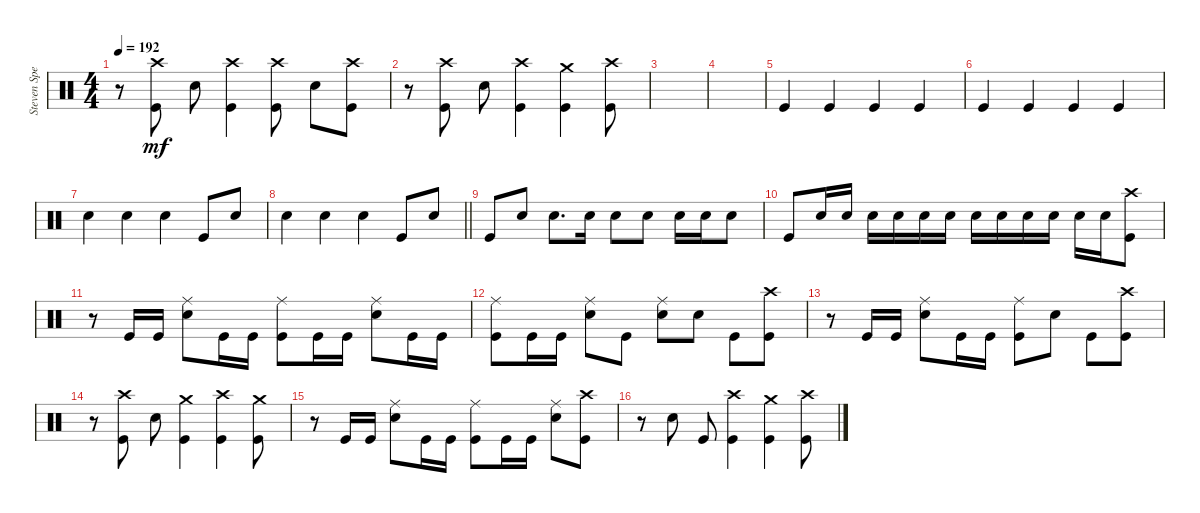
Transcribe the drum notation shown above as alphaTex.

\track ("Steven Spence" "Steven Spe") {instrument percussion}
\staff {score}
\articulation defaults
\ts (4 4)
\tempo 192
\clef neutral
\ks c
r.8{dy mf} ("Crash high (hit)" "Kick (hit)").8 "Electric Snare (hit)".8 ("Crash high (hit)" "Kick (hit)").4 ("Crash high (hit)" "Kick (hit)").8 "Electric Snare (hit)".8 ("Crash high (hit)" "Kick (hit)").8 |
r.8 ("Crash high (hit)" "Kick (hit)").8 "Electric Snare (hit)".8 ("Crash high (hit)" "Kick (hit)").4 ("Crash medium (hit)" "Kick (hit)").4 ("Crash high (hit)" "Kick (hit)").8 |
|
|
"Kick (hit)".4 "Kick (hit)".4 "Kick (hit)".4 "Kick (hit)".4 |
"Kick (hit)".4 "Kick (hit)".4 "Kick (hit)".4 "Kick (hit)".4 |
"Electric Snare (hit)".4 "Electric Snare (hit)".4 "Electric Snare (hit)".4 "Kick (hit)".8 "Electric Snare (hit)".8 |
\barLineRight lightlight "Electric Snare (hit)".4 "Electric Snare (hit)".4 "Electric Snare (hit)".4 "Kick (hit)".8 "Electric Snare (hit)".8
|
\section ("" "")
"Kick (hit)".8 "Electric Snare (hit)".8 "Electric Snare (hit)".8{d} "Electric Snare (hit)".16 "Electric Snare (hit)".8 "Electric Snare (hit)".8 "Electric Snare (hit)".16 "Electric Snare (hit)".16 "Electric Snare (hit)".8 |
"Kick (hit)".8 "Electric Snare (hit)".16 "Electric Snare (hit)".16 "Electric Snare (hit)".16 "Electric Snare (hit)".16 "Electric Snare (hit)".16 "Electric Snare (hit)".16 "Electric Snare (hit)".16 "Electric Snare (hit)".16 "Electric Snare (hit)".16 "Electric Snare (hit)".16 "Electric Snare (hit)".16 "Electric Snare (hit)".16 ("Crash high (hit)" "Kick (hit)").8 |
r.8 "Kick (hit)".16 "Kick (hit)".16 ("Ride (middle)" "Electric Snare (hit)").8 "Kick (hit)".16 "Kick (hit)".16 ("Ride (middle)" "Kick (hit)").8 "Kick (hit)".16 "Kick (hit)".16 ("Ride (middle)" "Electric Snare (hit)").8 "Kick (hit)".16 "Kick (hit)".16 |
("Ride (middle)" "Kick (hit)").8 "Kick (hit)".16 "Kick (hit)".16 ("Ride (middle)" "Electric Snare (hit)").8 "Kick (hit)".8 ("Ride (middle)" "Electric Snare (hit)").8 "Electric Snare (hit)".8 "Kick (hit)".8 ("Crash high (hit)" "Kick (hit)").8 |
r.8 "Kick (hit)".16 "Kick (hit)".16 ("Ride (middle)" "Electric Snare (hit)").8 "Kick (hit)".16 "Kick (hit)".16 ("Ride (middle)" "Kick (hit)").8 "Electric Snare (hit)".8 "Kick (hit)".8 ("Crash high (hit)" "Kick (hit)").8 |
r.8 ("Crash high (hit)" "Kick (hit)").8 "Electric Snare (hit)".8 ("Crash medium (hit)" "Kick (hit)").4 ("Crash high (hit)" "Kick (hit)").4 ("Crash medium (hit)" "Kick (hit)").8 |
r.8 "Kick (hit)".16 "Kick (hit)".16 ("Ride (middle)" "Electric Snare (hit)").8 "Kick (hit)".16 "Kick (hit)".16 ("Ride (middle)" "Kick (hit)").8 "Kick (hit)".16 "Kick (hit)".16 ("Ride (middle)" "Electric Snare (hit)").8 ("Crash high (hit)" "Kick (hit)").8 |
r.8 "Electric Snare (hit)".8 "Kick (hit)".8 ("Crash high (hit)" "Kick (hit)").4 ("Crash medium (hit)" "Kick (hit)").4 ("Crash high (hit)" "Kick (hit)").8
